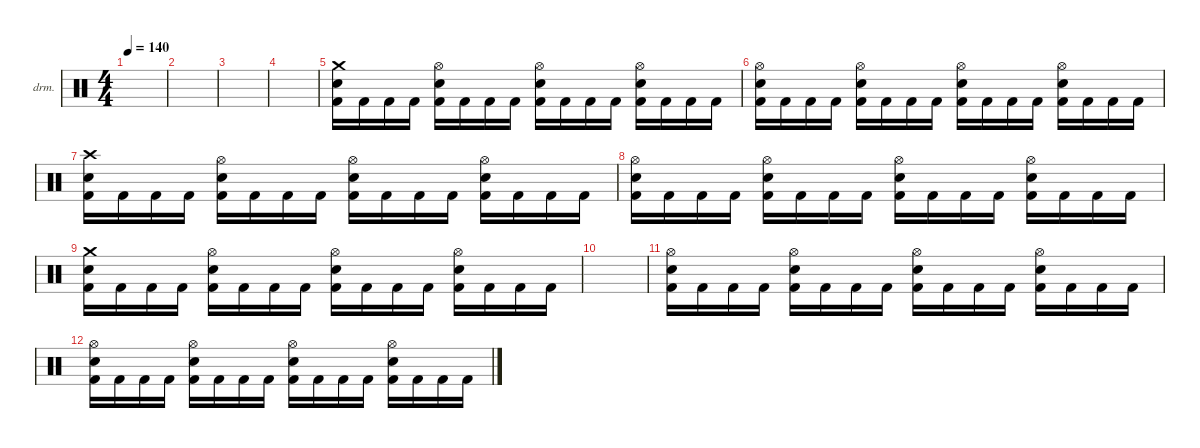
\defaultSystemsLayout 4
\hideDynamics
\bracketExtendMode nobrackets
\firstSystemTrackNameOrientation horizontal
\otherSystemsTrackNameOrientation horizontal
\track ("Drumkit" "drm.") {instrument percussion}
\staff {score}
\articulation defaults
\ts (4 4)
\tempo 140
\clef neutral
\ks c
|
|
|
|
("Crash medium (hit)" "Snare (hit) 2" "Kick (hit) 2").16 "Kick (hit) 2".16 "Kick (hit) 2".16 "Kick (hit) 2".16 ("Hi-Hat (open)" "Snare (hit) 2" "Kick (hit) 2").16 "Kick (hit) 2".16 "Kick (hit) 2".16 "Kick (hit) 2".16 ("Hi-Hat (open)" "Snare (hit) 2" "Kick (hit) 2").16 "Kick (hit) 2".16 "Kick (hit) 2".16 "Kick (hit) 2".16 ("Hi-Hat (open)" "Snare (hit) 2" "Kick (hit) 2").16 "Kick (hit) 2".16 "Kick (hit) 2".16 "Kick (hit) 2".16 |
("Hi-Hat (open)" "Snare (hit) 2" "Kick (hit) 2").16 "Kick (hit) 2".16 "Kick (hit) 2".16 "Kick (hit) 2".16 ("Hi-Hat (open)" "Snare (hit) 2" "Kick (hit) 2").16 "Kick (hit) 2".16 "Kick (hit) 2".16 "Kick (hit) 2".16 ("Hi-Hat (open)" "Snare (hit) 2" "Kick (hit) 2").16 "Kick (hit) 2".16 "Kick (hit) 2".16 "Kick (hit) 2".16 ("Hi-Hat (open)" "Snare (hit) 2" "Kick (hit) 2").16 "Kick (hit) 2".16 "Kick (hit) 2".16 "Kick (hit) 2".16 |
("Crash high (hit)" "Snare (hit) 2" "Kick (hit) 2").16 "Kick (hit) 2".16 "Kick (hit) 2".16 "Kick (hit) 2".16 ("Hi-Hat (open)" "Snare (hit) 2" "Kick (hit) 2").16 "Kick (hit) 2".16 "Kick (hit) 2".16 "Kick (hit) 2".16 ("Hi-Hat (open)" "Snare (hit) 2" "Kick (hit) 2").16 "Kick (hit) 2".16 "Kick (hit) 2".16 "Kick (hit) 2".16 ("Hi-Hat (open)" "Snare (hit) 2" "Kick (hit) 2").16 "Kick (hit) 2".16 "Kick (hit) 2".16 "Kick (hit) 2".16 |
("Hi-Hat (open)" "Snare (hit) 2" "Kick (hit) 2").16 "Kick (hit) 2".16 "Kick (hit) 2".16 "Kick (hit) 2".16 ("Hi-Hat (open)" "Snare (hit) 2" "Kick (hit) 2").16 "Kick (hit) 2".16 "Kick (hit) 2".16 "Kick (hit) 2".16 ("Hi-Hat (open)" "Snare (hit) 2" "Kick (hit) 2").16 "Kick (hit) 2".16 "Kick (hit) 2".16 "Kick (hit) 2".16 ("Hi-Hat (open)" "Snare (hit) 2" "Kick (hit) 2").16 "Kick (hit) 2".16 "Kick (hit) 2".16 "Kick (hit) 2".16 |
("Crash medium (hit)" "Snare (hit) 2" "Kick (hit) 2").16 "Kick (hit) 2".16 "Kick (hit) 2".16 "Kick (hit) 2".16 ("Hi-Hat (open)" "Snare (hit) 2" "Kick (hit) 2").16 "Kick (hit) 2".16 "Kick (hit) 2".16 "Kick (hit) 2".16 ("Hi-Hat (open)" "Snare (hit) 2" "Kick (hit) 2").16 "Kick (hit) 2".16 "Kick (hit) 2".16 "Kick (hit) 2".16 ("Hi-Hat (open)" "Snare (hit) 2" "Kick (hit) 2").16 "Kick (hit) 2".16 "Kick (hit) 2".16 "Kick (hit) 2".16 |
|
("Hi-Hat (open)" "Snare (hit) 2" "Kick (hit) 2").16 "Kick (hit) 2".16 "Kick (hit) 2".16 "Kick (hit) 2".16 ("Hi-Hat (open)" "Snare (hit) 2" "Kick (hit) 2").16 "Kick (hit) 2".16 "Kick (hit) 2".16 "Kick (hit) 2".16 ("Hi-Hat (open)" "Snare (hit) 2" "Kick (hit) 2").16 "Kick (hit) 2".16 "Kick (hit) 2".16 "Kick (hit) 2".16 ("Hi-Hat (open)" "Snare (hit) 2" "Kick (hit) 2").16 "Kick (hit) 2".16 "Kick (hit) 2".16 "Kick (hit) 2".16 |
("Hi-Hat (open)" "Snare (hit) 2" "Kick (hit) 2").16 "Kick (hit) 2".16 "Kick (hit) 2".16 "Kick (hit) 2".16 ("Hi-Hat (open)" "Snare (hit) 2" "Kick (hit) 2").16 "Kick (hit) 2".16 "Kick (hit) 2".16 "Kick (hit) 2".16 ("Hi-Hat (open)" "Snare (hit) 2" "Kick (hit) 2").16 "Kick (hit) 2".16 "Kick (hit) 2".16 "Kick (hit) 2".16 ("Hi-Hat (open)" "Snare (hit) 2" "Kick (hit) 2").16 "Kick (hit) 2".16 "Kick (hit) 2".16 "Kick (hit) 2".16
